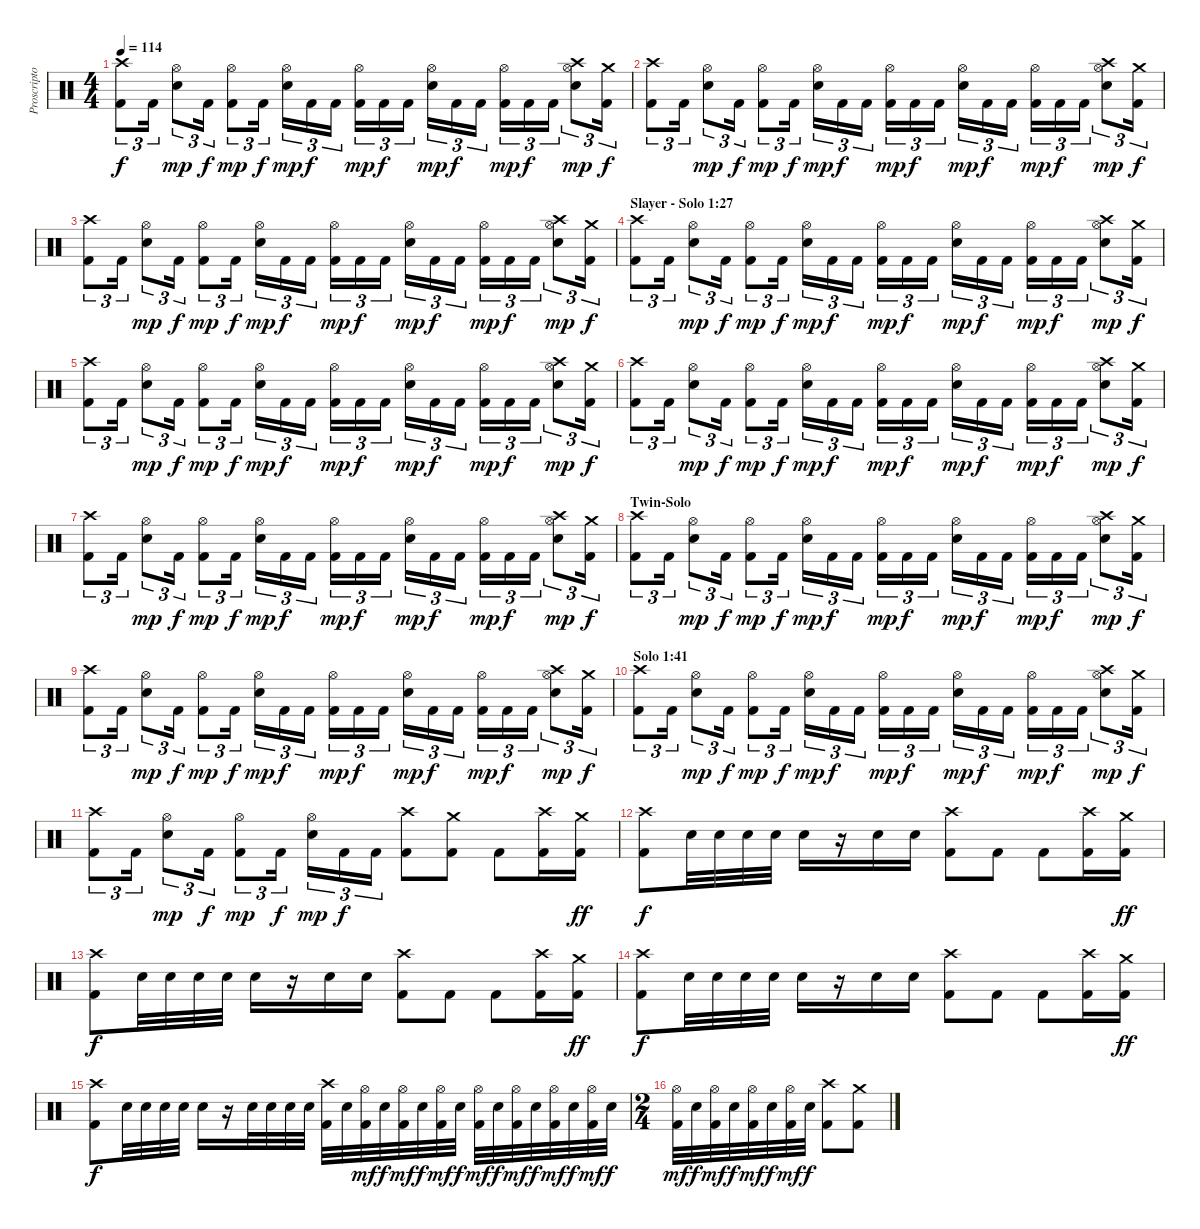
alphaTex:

\track ("Proscriptor (Drums)" "Proscripto") {instrument percussion}
\staff {score}
\articulation defaults
\ts (4 4)
\tempo 114
\clef neutral
\ks c
("Kick (hit) 2" "Crash high (hit)").8{tu (3 2) dy f} "Kick (hit) 2".16{tu (3 2)} ("Electric Snare (hit)" "Hi-Hat (open)").8{tu (3 2) dy mp} "Kick (hit) 2".16{tu (3 2) dy f} ("Kick (hit) 2" "Hi-Hat (open)").8{tu (3 2) dy mp} "Kick (hit) 2".16{tu (3 2) dy f} ("Electric Snare (hit)" "Hi-Hat (open)").16{tu (3 2) dy mp} "Kick (hit) 2".16{tu (3 2) dy f} "Kick (hit) 2".16{tu (3 2)} ("Kick (hit) 2" "Hi-Hat (open)").16{tu (3 2) dy mp} "Kick (hit) 2".16{tu (3 2) dy f} "Kick (hit) 2".16{tu (3 2)} ("Electric Snare (hit)" "Hi-Hat (open)").16{tu (3 2) dy mp} "Kick (hit) 2".16{tu (3 2) dy f} "Kick (hit) 2".16{tu (3 2)} ("Kick (hit) 2" "Hi-Hat (open)").16{tu (3 2) dy mp} "Kick (hit) 2".16{tu (3 2) dy f} "Kick (hit) 2".16{tu (3 2)} ("Electric Snare (hit)" "Hi-Hat (open)" "Crash high (hit)").8{tu (3 2) dy mp} ("Kick (hit) 2" "Crash medium (hit)").16{tu (3 2) dy f} |
("Kick (hit) 2" "Crash high (hit)").8{tu (3 2)} "Kick (hit) 2".16{tu (3 2)} ("Electric Snare (hit)" "Hi-Hat (open)").8{tu (3 2) dy mp} "Kick (hit) 2".16{tu (3 2) dy f} ("Kick (hit) 2" "Hi-Hat (open)").8{tu (3 2) dy mp} "Kick (hit) 2".16{tu (3 2) dy f} ("Electric Snare (hit)" "Hi-Hat (open)").16{tu (3 2) dy mp} "Kick (hit) 2".16{tu (3 2) dy f} "Kick (hit) 2".16{tu (3 2)} ("Kick (hit) 2" "Hi-Hat (open)").16{tu (3 2) dy mp} "Kick (hit) 2".16{tu (3 2) dy f} "Kick (hit) 2".16{tu (3 2)} ("Electric Snare (hit)" "Hi-Hat (open)").16{tu (3 2) dy mp} "Kick (hit) 2".16{tu (3 2) dy f} "Kick (hit) 2".16{tu (3 2)} ("Kick (hit) 2" "Hi-Hat (open)").16{tu (3 2) dy mp} "Kick (hit) 2".16{tu (3 2) dy f} "Kick (hit) 2".16{tu (3 2)} ("Electric Snare (hit)" "Hi-Hat (open)" "Crash high (hit)").8{tu (3 2) dy mp} ("Kick (hit) 2" "Crash medium (hit)").16{tu (3 2) dy f} |
("Kick (hit) 2" "Crash high (hit)").8{tu (3 2)} "Kick (hit) 2".16{tu (3 2)} ("Electric Snare (hit)" "Hi-Hat (open)").8{tu (3 2) dy mp} "Kick (hit) 2".16{tu (3 2) dy f} ("Kick (hit) 2" "Hi-Hat (open)").8{tu (3 2) dy mp} "Kick (hit) 2".16{tu (3 2) dy f} ("Electric Snare (hit)" "Hi-Hat (open)").16{tu (3 2) dy mp} "Kick (hit) 2".16{tu (3 2) dy f} "Kick (hit) 2".16{tu (3 2)} ("Kick (hit) 2" "Hi-Hat (open)").16{tu (3 2) dy mp} "Kick (hit) 2".16{tu (3 2) dy f} "Kick (hit) 2".16{tu (3 2)} ("Electric Snare (hit)" "Hi-Hat (open)").16{tu (3 2) dy mp} "Kick (hit) 2".16{tu (3 2) dy f} "Kick (hit) 2".16{tu (3 2)} ("Kick (hit) 2" "Hi-Hat (open)").16{tu (3 2) dy mp} "Kick (hit) 2".16{tu (3 2) dy f} "Kick (hit) 2".16{tu (3 2)} ("Electric Snare (hit)" "Hi-Hat (open)" "Crash high (hit)").8{tu (3 2) dy mp} ("Kick (hit) 2" "Crash medium (hit)").16{tu (3 2) dy f} |
\section ("" "Slayer - Solo 1:27")
("Kick (hit) 2" "Crash high (hit)").8{tu (3 2)} "Kick (hit) 2".16{tu (3 2)} ("Electric Snare (hit)" "Hi-Hat (open)").8{tu (3 2) dy mp} "Kick (hit) 2".16{tu (3 2) dy f} ("Kick (hit) 2" "Hi-Hat (open)").8{tu (3 2) dy mp} "Kick (hit) 2".16{tu (3 2) dy f} ("Electric Snare (hit)" "Hi-Hat (open)").16{tu (3 2) dy mp} "Kick (hit) 2".16{tu (3 2) dy f} "Kick (hit) 2".16{tu (3 2)} ("Kick (hit) 2" "Hi-Hat (open)").16{tu (3 2) dy mp} "Kick (hit) 2".16{tu (3 2) dy f} "Kick (hit) 2".16{tu (3 2)} ("Electric Snare (hit)" "Hi-Hat (open)").16{tu (3 2) dy mp} "Kick (hit) 2".16{tu (3 2) dy f} "Kick (hit) 2".16{tu (3 2)} ("Kick (hit) 2" "Hi-Hat (open)").16{tu (3 2) dy mp} "Kick (hit) 2".16{tu (3 2) dy f} "Kick (hit) 2".16{tu (3 2)} ("Electric Snare (hit)" "Hi-Hat (open)" "Crash high (hit)").8{tu (3 2) dy mp} ("Kick (hit) 2" "Crash medium (hit)").16{tu (3 2) dy f} |
("Kick (hit) 2" "Crash high (hit)").8{tu (3 2)} "Kick (hit) 2".16{tu (3 2)} ("Electric Snare (hit)" "Hi-Hat (open)").8{tu (3 2) dy mp} "Kick (hit) 2".16{tu (3 2) dy f} ("Kick (hit) 2" "Hi-Hat (open)").8{tu (3 2) dy mp} "Kick (hit) 2".16{tu (3 2) dy f} ("Electric Snare (hit)" "Hi-Hat (open)").16{tu (3 2) dy mp} "Kick (hit) 2".16{tu (3 2) dy f} "Kick (hit) 2".16{tu (3 2)} ("Kick (hit) 2" "Hi-Hat (open)").16{tu (3 2) dy mp} "Kick (hit) 2".16{tu (3 2) dy f} "Kick (hit) 2".16{tu (3 2)} ("Electric Snare (hit)" "Hi-Hat (open)").16{tu (3 2) dy mp} "Kick (hit) 2".16{tu (3 2) dy f} "Kick (hit) 2".16{tu (3 2)} ("Kick (hit) 2" "Hi-Hat (open)").16{tu (3 2) dy mp} "Kick (hit) 2".16{tu (3 2) dy f} "Kick (hit) 2".16{tu (3 2)} ("Electric Snare (hit)" "Hi-Hat (open)" "Crash high (hit)").8{tu (3 2) dy mp} ("Kick (hit) 2" "Crash medium (hit)").16{tu (3 2) dy f} |
("Kick (hit) 2" "Crash high (hit)").8{tu (3 2)} "Kick (hit) 2".16{tu (3 2)} ("Electric Snare (hit)" "Hi-Hat (open)").8{tu (3 2) dy mp} "Kick (hit) 2".16{tu (3 2) dy f} ("Kick (hit) 2" "Hi-Hat (open)").8{tu (3 2) dy mp} "Kick (hit) 2".16{tu (3 2) dy f} ("Electric Snare (hit)" "Hi-Hat (open)").16{tu (3 2) dy mp} "Kick (hit) 2".16{tu (3 2) dy f} "Kick (hit) 2".16{tu (3 2)} ("Kick (hit) 2" "Hi-Hat (open)").16{tu (3 2) dy mp} "Kick (hit) 2".16{tu (3 2) dy f} "Kick (hit) 2".16{tu (3 2)} ("Electric Snare (hit)" "Hi-Hat (open)").16{tu (3 2) dy mp} "Kick (hit) 2".16{tu (3 2) dy f} "Kick (hit) 2".16{tu (3 2)} ("Kick (hit) 2" "Hi-Hat (open)").16{tu (3 2) dy mp} "Kick (hit) 2".16{tu (3 2) dy f} "Kick (hit) 2".16{tu (3 2)} ("Electric Snare (hit)" "Hi-Hat (open)" "Crash high (hit)").8{tu (3 2) dy mp} ("Kick (hit) 2" "Crash medium (hit)").16{tu (3 2) dy f} |
("Kick (hit) 2" "Crash high (hit)").8{tu (3 2)} "Kick (hit) 2".16{tu (3 2)} ("Electric Snare (hit)" "Hi-Hat (open)").8{tu (3 2) dy mp} "Kick (hit) 2".16{tu (3 2) dy f} ("Kick (hit) 2" "Hi-Hat (open)").8{tu (3 2) dy mp} "Kick (hit) 2".16{tu (3 2) dy f} ("Electric Snare (hit)" "Hi-Hat (open)").16{tu (3 2) dy mp} "Kick (hit) 2".16{tu (3 2) dy f} "Kick (hit) 2".16{tu (3 2)} ("Kick (hit) 2" "Hi-Hat (open)").16{tu (3 2) dy mp} "Kick (hit) 2".16{tu (3 2) dy f} "Kick (hit) 2".16{tu (3 2)} ("Electric Snare (hit)" "Hi-Hat (open)").16{tu (3 2) dy mp} "Kick (hit) 2".16{tu (3 2) dy f} "Kick (hit) 2".16{tu (3 2)} ("Kick (hit) 2" "Hi-Hat (open)").16{tu (3 2) dy mp} "Kick (hit) 2".16{tu (3 2) dy f} "Kick (hit) 2".16{tu (3 2)} ("Electric Snare (hit)" "Hi-Hat (open)" "Crash high (hit)").8{tu (3 2) dy mp} ("Kick (hit) 2" "Crash medium (hit)").16{tu (3 2) dy f} |
\section ("" "Twin-Solo")
("Kick (hit) 2" "Crash high (hit)").8{tu (3 2)} "Kick (hit) 2".16{tu (3 2)} ("Electric Snare (hit)" "Hi-Hat (open)").8{tu (3 2) dy mp} "Kick (hit) 2".16{tu (3 2) dy f} ("Kick (hit) 2" "Hi-Hat (open)").8{tu (3 2) dy mp} "Kick (hit) 2".16{tu (3 2) dy f} ("Electric Snare (hit)" "Hi-Hat (open)").16{tu (3 2) dy mp} "Kick (hit) 2".16{tu (3 2) dy f} "Kick (hit) 2".16{tu (3 2)} ("Kick (hit) 2" "Hi-Hat (open)").16{tu (3 2) dy mp} "Kick (hit) 2".16{tu (3 2) dy f} "Kick (hit) 2".16{tu (3 2)} ("Electric Snare (hit)" "Hi-Hat (open)").16{tu (3 2) dy mp} "Kick (hit) 2".16{tu (3 2) dy f} "Kick (hit) 2".16{tu (3 2)} ("Kick (hit) 2" "Hi-Hat (open)").16{tu (3 2) dy mp} "Kick (hit) 2".16{tu (3 2) dy f} "Kick (hit) 2".16{tu (3 2)} ("Electric Snare (hit)" "Hi-Hat (open)" "Crash high (hit)").8{tu (3 2) dy mp} ("Kick (hit) 2" "Crash medium (hit)").16{tu (3 2) dy f} |
("Kick (hit) 2" "Crash high (hit)").8{tu (3 2)} "Kick (hit) 2".16{tu (3 2)} ("Electric Snare (hit)" "Hi-Hat (open)").8{tu (3 2) dy mp} "Kick (hit) 2".16{tu (3 2) dy f} ("Kick (hit) 2" "Hi-Hat (open)").8{tu (3 2) dy mp} "Kick (hit) 2".16{tu (3 2) dy f} ("Electric Snare (hit)" "Hi-Hat (open)").16{tu (3 2) dy mp} "Kick (hit) 2".16{tu (3 2) dy f} "Kick (hit) 2".16{tu (3 2)} ("Kick (hit) 2" "Hi-Hat (open)").16{tu (3 2) dy mp} "Kick (hit) 2".16{tu (3 2) dy f} "Kick (hit) 2".16{tu (3 2)} ("Electric Snare (hit)" "Hi-Hat (open)").16{tu (3 2) dy mp} "Kick (hit) 2".16{tu (3 2) dy f} "Kick (hit) 2".16{tu (3 2)} ("Kick (hit) 2" "Hi-Hat (open)").16{tu (3 2) dy mp} "Kick (hit) 2".16{tu (3 2) dy f} "Kick (hit) 2".16{tu (3 2)} ("Electric Snare (hit)" "Hi-Hat (open)" "Crash high (hit)").8{tu (3 2) dy mp} ("Kick (hit) 2" "Crash medium (hit)").16{tu (3 2) dy f} |
\section ("" "Solo 1:41")
("Kick (hit) 2" "Crash high (hit)").8{tu (3 2)} "Kick (hit) 2".16{tu (3 2)} ("Electric Snare (hit)" "Hi-Hat (open)").8{tu (3 2) dy mp} "Kick (hit) 2".16{tu (3 2) dy f} ("Kick (hit) 2" "Hi-Hat (open)").8{tu (3 2) dy mp} "Kick (hit) 2".16{tu (3 2) dy f} ("Electric Snare (hit)" "Hi-Hat (open)").16{tu (3 2) dy mp} "Kick (hit) 2".16{tu (3 2) dy f} "Kick (hit) 2".16{tu (3 2)} ("Kick (hit) 2" "Hi-Hat (open)").16{tu (3 2) dy mp} "Kick (hit) 2".16{tu (3 2) dy f} "Kick (hit) 2".16{tu (3 2)} ("Electric Snare (hit)" "Hi-Hat (open)").16{tu (3 2) dy mp} "Kick (hit) 2".16{tu (3 2) dy f} "Kick (hit) 2".16{tu (3 2)} ("Kick (hit) 2" "Hi-Hat (open)").16{tu (3 2) dy mp} "Kick (hit) 2".16{tu (3 2) dy f} "Kick (hit) 2".16{tu (3 2)} ("Electric Snare (hit)" "Hi-Hat (open)" "Crash high (hit)").8{tu (3 2) dy mp} ("Kick (hit) 2" "Crash medium (hit)").16{tu (3 2) dy f} |
("Kick (hit) 2" "Crash high (hit)").8{tu (3 2)} "Kick (hit) 2".16{tu (3 2)} ("Electric Snare (hit)" "Hi-Hat (open)").8{tu (3 2) dy mp} "Kick (hit) 2".16{tu (3 2) dy f} ("Kick (hit) 2" "Hi-Hat (open)").8{tu (3 2) dy mp} "Kick (hit) 2".16{tu (3 2) dy f} ("Electric Snare (hit)" "Hi-Hat (open)").16{tu (3 2) dy mp} "Kick (hit) 2".16{tu (3 2) dy f} "Kick (hit) 2".16{tu (3 2)} ("Kick (hit) 2" "Crash high (hit)").8 ("Kick (hit) 2" "Crash medium (hit)").8 "Kick (hit) 2".8 ("Kick (hit) 2" "Crash high (hit)").16 ("Kick (hit) 2" "Crash medium (hit)").16{dy ff} |
("Kick (hit) 2" "Crash high (hit)").8{dy f} "Electric Snare (hit)".32 "Electric Snare (hit)".32 "Electric Snare (hit)".32 "Electric Snare (hit)".32 "Electric Snare (hit)".16 r.16 "Electric Snare (hit)".16 "Electric Snare (hit)".16 ("Kick (hit) 2" "Crash high (hit)").8 "Kick (hit) 2".8 "Kick (hit) 2".8 ("Kick (hit) 2" "Crash high (hit)").16 ("Kick (hit) 2" "Crash medium (hit)").16{dy ff} |
("Kick (hit) 2" "Crash high (hit)").8{dy f} "Electric Snare (hit)".32 "Electric Snare (hit)".32 "Electric Snare (hit)".32 "Electric Snare (hit)".32 "Electric Snare (hit)".16 r.16 "Electric Snare (hit)".16 "Electric Snare (hit)".16 ("Kick (hit) 2" "Crash high (hit)").8 "Kick (hit) 2".8 "Kick (hit) 2".8 ("Kick (hit) 2" "Crash high (hit)").16 ("Kick (hit) 2" "Crash medium (hit)").16{dy ff} |
("Kick (hit) 2" "Crash high (hit)").8{dy f} "Electric Snare (hit)".32 "Electric Snare (hit)".32 "Electric Snare (hit)".32 "Electric Snare (hit)".32 "Electric Snare (hit)".16 r.16 "Electric Snare (hit)".16 "Electric Snare (hit)".16 ("Kick (hit) 2" "Crash high (hit)").8 "Kick (hit) 2".8 "Kick (hit) 2".8 ("Kick (hit) 2" "Crash high (hit)").16 ("Kick (hit) 2" "Crash medium (hit)").16{dy ff} |
("Kick (hit) 2" "Crash high (hit)").8{dy f} "Electric Snare (hit)".32 "Electric Snare (hit)".32 "Electric Snare (hit)".32 "Electric Snare (hit)".32 "Electric Snare (hit)".16 r.16 "Electric Snare (hit)".32 "Electric Snare (hit)".32 "Electric Snare (hit)".32 "Electric Snare (hit)".32 ("Kick (hit) 2" "Crash high (hit)").32 "Electric Snare (hit)".32 ("Kick (hit) 2" "Hi-Hat (open)").32{dy mf} "Electric Snare (hit)".32{dy f} ("Kick (hit) 2" "Hi-Hat (open)").32{dy mf} "Electric Snare (hit)".32{dy f} ("Kick (hit) 2" "Hi-Hat (open)").32{dy mf} "Electric Snare (hit)".32{dy f} ("Kick (hit) 2" "Hi-Hat (open)").32{dy mf} "Electric Snare (hit)".32{dy f} ("Kick (hit) 2" "Hi-Hat (open)").32{dy mf} "Electric Snare (hit)".32{dy f} ("Kick (hit) 2" "Hi-Hat (open)").32{dy mf} "Electric Snare (hit)".32{dy f} ("Kick (hit) 2" "Hi-Hat (open)").32{dy mf} "Electric Snare (hit)".32{dy f} |
\ts (2 4)
("Kick (hit) 2" "Hi-Hat (open)").32{dy mf} "Electric Snare (hit)".32{dy f} ("Kick (hit) 2" "Hi-Hat (open)").32{dy mf} "Electric Snare (hit)".32{dy f} ("Kick (hit) 2" "Hi-Hat (open)").32{dy mf} "Electric Snare (hit)".32{dy f} ("Kick (hit) 2" "Hi-Hat (open)").32{dy mf} "Electric Snare (hit)".32{dy f} ("Kick (hit) 2" "Crash high (hit)").8 ("Kick (hit) 2" "Crash medium (hit)").8
